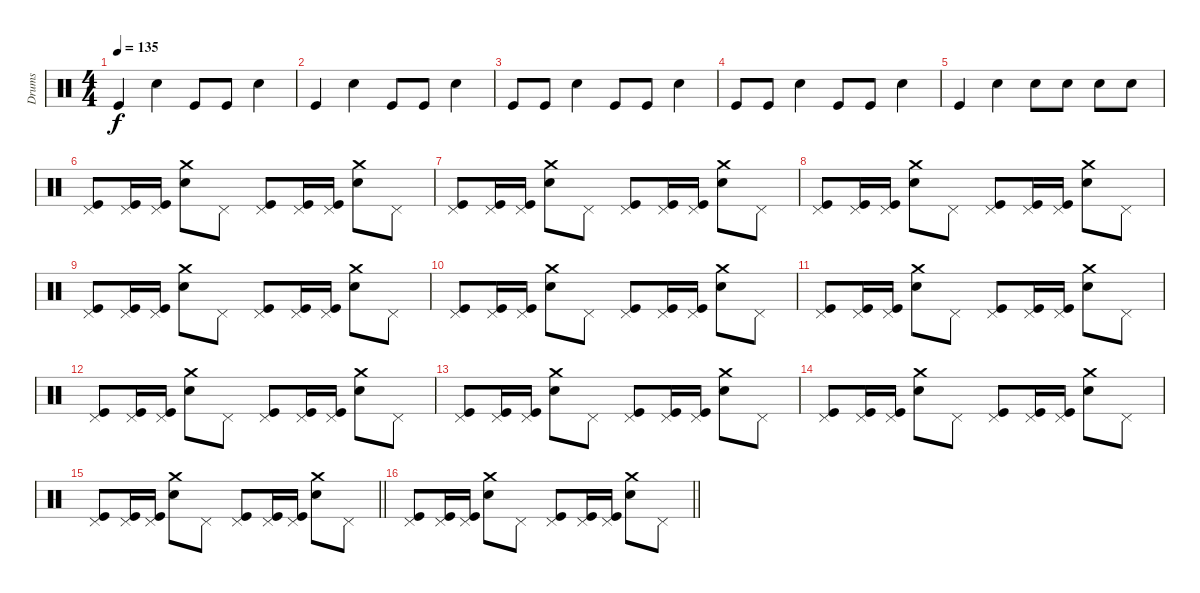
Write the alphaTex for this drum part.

\track ("Drums" "Drums") {instrument percussion}
\staff {score}
\articulation defaults
\ts (4 4)
\tempo 135
\clef neutral
\ks c "Kick (hit)".4{dy f} "Electric Snare (hit)".4 "Kick (hit)".8 "Kick (hit)".8 "Electric Snare (hit)".4
|
"Kick (hit)".4 "Electric Snare (hit)".4 "Kick (hit)".8 "Kick (hit)".8 "Electric Snare (hit)".4 |
"Kick (hit)".8 "Kick (hit)".8 "Electric Snare (hit)".4 "Kick (hit)".8 "Kick (hit)".8 "Electric Snare (hit)".4 |
"Kick (hit)".8 "Kick (hit)".8 "Electric Snare (hit)".4 "Kick (hit)".8 "Kick (hit)".8 "Electric Snare (hit)".4 |
"Kick (hit)".4 "Electric Snare (hit)".4 "Electric Snare (hit)".8 "Electric Snare (hit)".8 "Electric Snare (hit)".8 "Electric Snare (hit)".8 |
("Pedal Hi-Hat (hit)" "Kick (hit)").8 ("Pedal Hi-Hat (hit)" "Kick (hit)").16 ("Pedal Hi-Hat (hit)" "Kick (hit)").16 ("Crash medium (hit)" "Electric Snare (hit)").8 "Pedal Hi-Hat (hit)".8 ("Pedal Hi-Hat (hit)" "Kick (hit)").8 ("Pedal Hi-Hat (hit)" "Kick (hit)").16 ("Pedal Hi-Hat (hit)" "Kick (hit)").16 ("Crash medium (hit)" "Electric Snare (hit)").8 "Pedal Hi-Hat (hit)".8 |
("Pedal Hi-Hat (hit)" "Kick (hit)").8 ("Pedal Hi-Hat (hit)" "Kick (hit)").16 ("Pedal Hi-Hat (hit)" "Kick (hit)").16 ("Crash medium (hit)" "Electric Snare (hit)").8 "Pedal Hi-Hat (hit)".8 ("Pedal Hi-Hat (hit)" "Kick (hit)").8 ("Pedal Hi-Hat (hit)" "Kick (hit)").16 ("Pedal Hi-Hat (hit)" "Kick (hit)").16 ("Crash medium (hit)" "Electric Snare (hit)").8 "Pedal Hi-Hat (hit)".8 |
("Pedal Hi-Hat (hit)" "Kick (hit)").8 ("Pedal Hi-Hat (hit)" "Kick (hit)").16 ("Pedal Hi-Hat (hit)" "Kick (hit)").16 ("Crash medium (hit)" "Electric Snare (hit)").8 "Pedal Hi-Hat (hit)".8 ("Pedal Hi-Hat (hit)" "Kick (hit)").8 ("Pedal Hi-Hat (hit)" "Kick (hit)").16 ("Pedal Hi-Hat (hit)" "Kick (hit)").16 ("Crash medium (hit)" "Electric Snare (hit)").8 "Pedal Hi-Hat (hit)".8 |
("Pedal Hi-Hat (hit)" "Kick (hit)").8 ("Pedal Hi-Hat (hit)" "Kick (hit)").16 ("Pedal Hi-Hat (hit)" "Kick (hit)").16 ("Crash medium (hit)" "Electric Snare (hit)").8 "Pedal Hi-Hat (hit)".8 ("Pedal Hi-Hat (hit)" "Kick (hit)").8 ("Pedal Hi-Hat (hit)" "Kick (hit)").16 ("Pedal Hi-Hat (hit)" "Kick (hit)").16 ("Crash medium (hit)" "Electric Snare (hit)").8 "Pedal Hi-Hat (hit)".8 |
("Pedal Hi-Hat (hit)" "Kick (hit)").8 ("Pedal Hi-Hat (hit)" "Kick (hit)").16 ("Pedal Hi-Hat (hit)" "Kick (hit)").16 ("Crash medium (hit)" "Electric Snare (hit)").8 "Pedal Hi-Hat (hit)".8 ("Pedal Hi-Hat (hit)" "Kick (hit)").8 ("Pedal Hi-Hat (hit)" "Kick (hit)").16 ("Pedal Hi-Hat (hit)" "Kick (hit)").16 ("Crash medium (hit)" "Electric Snare (hit)").8 "Pedal Hi-Hat (hit)".8 |
("Pedal Hi-Hat (hit)" "Kick (hit)").8 ("Pedal Hi-Hat (hit)" "Kick (hit)").16 ("Pedal Hi-Hat (hit)" "Kick (hit)").16 ("Crash medium (hit)" "Electric Snare (hit)").8 "Pedal Hi-Hat (hit)".8 ("Pedal Hi-Hat (hit)" "Kick (hit)").8 ("Pedal Hi-Hat (hit)" "Kick (hit)").16 ("Pedal Hi-Hat (hit)" "Kick (hit)").16 ("Crash medium (hit)" "Electric Snare (hit)").8 "Pedal Hi-Hat (hit)".8 |
("Pedal Hi-Hat (hit)" "Kick (hit)").8 ("Pedal Hi-Hat (hit)" "Kick (hit)").16 ("Pedal Hi-Hat (hit)" "Kick (hit)").16 ("Crash medium (hit)" "Electric Snare (hit)").8 "Pedal Hi-Hat (hit)".8 ("Pedal Hi-Hat (hit)" "Kick (hit)").8 ("Pedal Hi-Hat (hit)" "Kick (hit)").16 ("Pedal Hi-Hat (hit)" "Kick (hit)").16 ("Crash medium (hit)" "Electric Snare (hit)").8 "Pedal Hi-Hat (hit)".8 |
("Pedal Hi-Hat (hit)" "Kick (hit)").8 ("Pedal Hi-Hat (hit)" "Kick (hit)").16 ("Pedal Hi-Hat (hit)" "Kick (hit)").16 ("Crash medium (hit)" "Electric Snare (hit)").8 "Pedal Hi-Hat (hit)".8 ("Pedal Hi-Hat (hit)" "Kick (hit)").8 ("Pedal Hi-Hat (hit)" "Kick (hit)").16 ("Pedal Hi-Hat (hit)" "Kick (hit)").16 ("Crash medium (hit)" "Electric Snare (hit)").8 "Pedal Hi-Hat (hit)".8 |
("Pedal Hi-Hat (hit)" "Kick (hit)").8 ("Pedal Hi-Hat (hit)" "Kick (hit)").16 ("Pedal Hi-Hat (hit)" "Kick (hit)").16 ("Crash medium (hit)" "Electric Snare (hit)").8 "Pedal Hi-Hat (hit)".8 ("Pedal Hi-Hat (hit)" "Kick (hit)").8 ("Pedal Hi-Hat (hit)" "Kick (hit)").16 ("Pedal Hi-Hat (hit)" "Kick (hit)").16 ("Crash medium (hit)" "Electric Snare (hit)").8 "Pedal Hi-Hat (hit)".8 |
\barLineRight lightlight
("Pedal Hi-Hat (hit)" "Kick (hit)").8 ("Pedal Hi-Hat (hit)" "Kick (hit)").16 ("Pedal Hi-Hat (hit)" "Kick (hit)").16 ("Crash medium (hit)" "Electric Snare (hit)").8 "Pedal Hi-Hat (hit)".8 ("Pedal Hi-Hat (hit)" "Kick (hit)").8 ("Pedal Hi-Hat (hit)" "Kick (hit)").16 ("Pedal Hi-Hat (hit)" "Kick (hit)").16 ("Crash medium (hit)" "Electric Snare (hit)").8 "Pedal Hi-Hat (hit)".8 |
\barLineRight lightlight
("Pedal Hi-Hat (hit)" "Kick (hit)").8 ("Pedal Hi-Hat (hit)" "Kick (hit)").16 ("Pedal Hi-Hat (hit)" "Kick (hit)").16 ("Crash medium (hit)" "Electric Snare (hit)").8 "Pedal Hi-Hat (hit)".8 ("Pedal Hi-Hat (hit)" "Kick (hit)").8 ("Pedal Hi-Hat (hit)" "Kick (hit)").16 ("Pedal Hi-Hat (hit)" "Kick (hit)").16 ("Crash medium (hit)" "Electric Snare (hit)").8 "Pedal Hi-Hat (hit)".8
